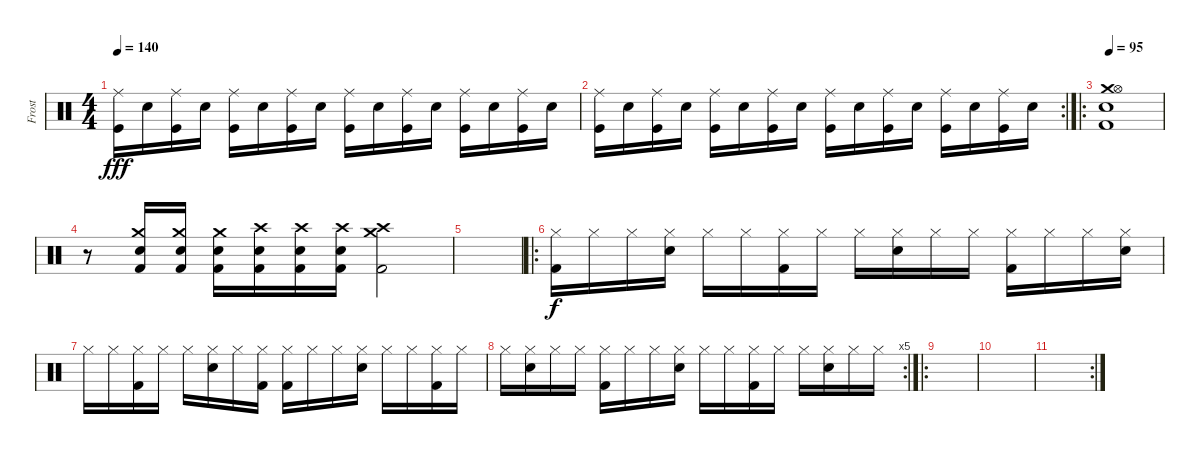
\track ("Frost" "Frost") {instrument percussion}
\staff {score}
\articulation defaults
\ts (4 4)
\tempo 140
\clef neutral
\ks c
("Ride (middle)" "Kick (hit)").16{dy fff} "Electric Snare (hit)".16 ("Ride (middle)" "Kick (hit)").16 "Electric Snare (hit)".16 ("Ride (middle)" "Kick (hit)").16 "Electric Snare (hit)".16 ("Ride (middle)" "Kick (hit)").16 "Electric Snare (hit)".16 ("Ride (middle)" "Kick (hit)").16 "Electric Snare (hit)".16 ("Ride (middle)" "Kick (hit)").16 "Electric Snare (hit)".16 ("Ride (middle)" "Kick (hit)").16 "Electric Snare (hit)".16 ("Ride (middle)" "Kick (hit)").16 "Electric Snare (hit)".16 |
\rc 2
("Ride (middle)" "Kick (hit)").16 "Electric Snare (hit)".16 ("Ride (middle)" "Kick (hit)").16 "Electric Snare (hit)".16 ("Ride (middle)" "Kick (hit)").16 "Electric Snare (hit)".16 ("Ride (middle)" "Kick (hit)").16 "Electric Snare (hit)".16 ("Ride (middle)" "Kick (hit)").16 "Electric Snare (hit)".16 ("Ride (middle)" "Kick (hit)").16 "Electric Snare (hit)".16 ("Ride (middle)" "Kick (hit)").16 "Electric Snare (hit)".16 ("Ride (middle)" "Kick (hit)").16 "Electric Snare (hit)".16 |
\ro
\tempo 106
\tempo 95
("Electric Snare (hit)" "Crash medium (hit)" "Hi-Hat (open)" "Kick (hit) 2").1 |
r.8 ("Crash medium (hit)" "Electric Snare (hit)" "Kick (hit) 2").16 ("Crash medium (hit)" "Electric Snare (hit)" "Kick (hit) 2").16 ("Crash medium (hit)" "Electric Snare (hit)" "Kick (hit) 2").16 ("Crash high (hit)" "Electric Snare (hit)" "Kick (hit) 2").16 ("Crash high (hit)" "Electric Snare (hit)" "Kick (hit) 2").16 ("Crash high (hit)" "Electric Snare (hit)" "Kick (hit) 2").16 ("Crash high (hit)" "Crash medium (hit)" "Kick (hit) 2").2 |
|
\ro
("Hi-Hat (closed)" "Kick (hit) 2").16{dy f} "Hi-Hat (closed)".16 "Hi-Hat (closed)".16 ("Hi-Hat (closed)" "Electric Snare (hit)").16 "Hi-Hat (closed)".16 "Hi-Hat (closed)".16 ("Hi-Hat (closed)" "Kick (hit) 2").16 "Hi-Hat (closed)".16 "Hi-Hat (closed)".16 ("Hi-Hat (closed)" "Electric Snare (hit)").16 "Hi-Hat (closed)".16 "Hi-Hat (closed)".16 ("Hi-Hat (closed)" "Kick (hit) 2").16 "Hi-Hat (closed)".16 "Hi-Hat (closed)".16 ("Hi-Hat (closed)" "Electric Snare (hit)").16 |
"Hi-Hat (closed)".16 "Hi-Hat (closed)".16 ("Hi-Hat (closed)" "Kick (hit) 2").16 "Hi-Hat (closed)".16 "Hi-Hat (closed)".16 ("Hi-Hat (closed)" "Electric Snare (hit)").16 "Hi-Hat (closed)".16 ("Hi-Hat (closed)" "Kick (hit) 2").16 ("Hi-Hat (closed)" "Kick (hit) 2").16 "Hi-Hat (closed)".16 "Hi-Hat (closed)".16 ("Hi-Hat (closed)" "Electric Snare (hit)").16 "Hi-Hat (closed)".16 "Hi-Hat (closed)".16 ("Hi-Hat (closed)" "Kick (hit) 2").16 "Hi-Hat (closed)".16 |
\rc 5 "Hi-Hat (closed)".16
("Hi-Hat (closed)" "Electric Snare (hit)").16 "Hi-Hat (closed)".16 "Hi-Hat (closed)".16 ("Hi-Hat (closed)" "Kick (hit) 2").16 "Hi-Hat (closed)".16 "Hi-Hat (closed)".16 ("Hi-Hat (closed)" "Electric Snare (hit)").16 "Hi-Hat (closed)".16 "Hi-Hat (closed)".16 ("Hi-Hat (closed)" "Kick (hit) 2").16 "Hi-Hat (closed)".16 "Hi-Hat (closed)".16 ("Hi-Hat (closed)" "Electric Snare (hit)").16 "Hi-Hat (closed)".16 "Hi-Hat (closed)".16 |
\ro
|
|
\rc 2
